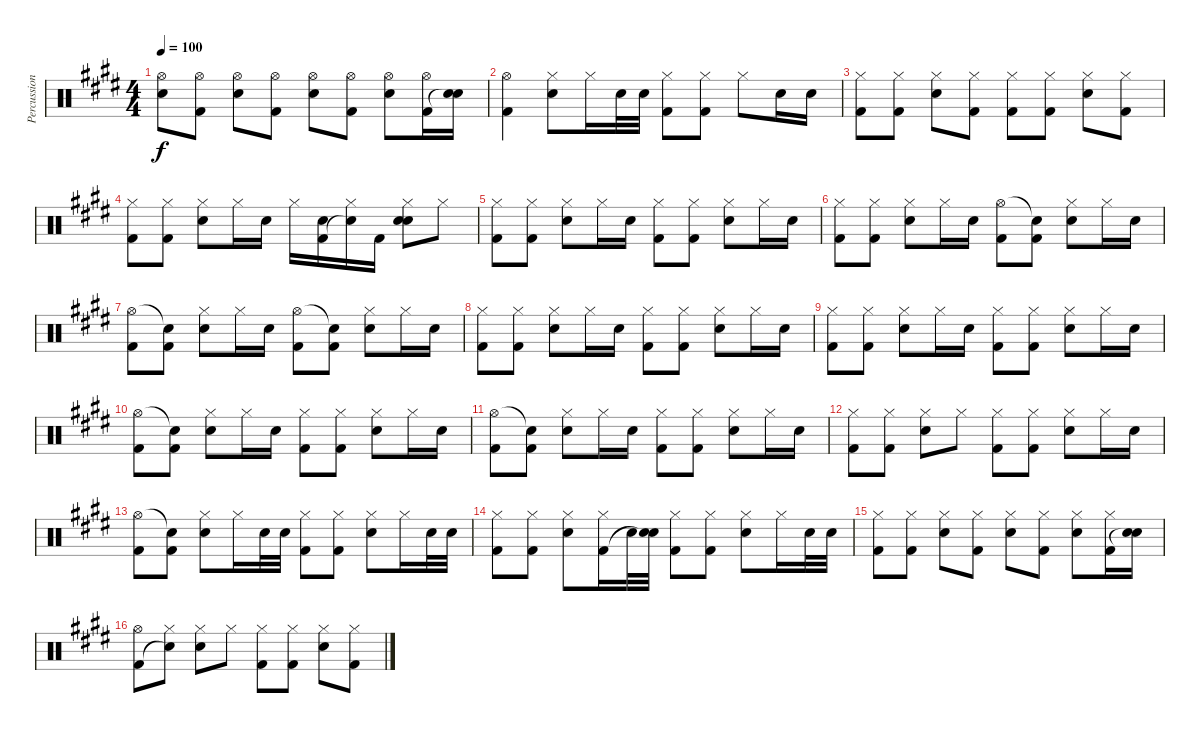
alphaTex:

\track ("Percussion" "Percussion") {instrument percussion}
\staff {score}
\articulation defaults
\ts (4 4)
\tempo 100
\clef neutral
\ks e
("Hi-Hat (open)" "Snare (hit) 2").8{dy f} ("Hi-Hat (open)" "Kick (hit) 2").8 ("Hi-Hat (open)" "Snare (hit) 2").8 ("Hi-Hat (open)" "Kick (hit) 2").8 ("Hi-Hat (open)" "Snare (hit) 2").8 ("Hi-Hat (open)" "Kick (hit) 2").8 ("Hi-Hat (open)" "Snare (hit) 2").8 ("Hi-Hat (open)" "Kick (hit) 2").16 ("Snare (hit) 2" "Snare (hit)"{t}).16 |
("Hi-Hat (open)" "Kick (hit) 2").4 ("Hi-Hat (closed)" "Snare (hit) 2").8 "Hi-Hat (closed)".16 "Snare (hit) 2".32 "Snare (hit) 2".32 ("Hi-Hat (closed)" "Kick (hit) 2").8 ("Hi-Hat (closed)" "Kick (hit) 2").8 "Hi-Hat (closed)".8 "Snare (hit) 2".16 "Snare (hit) 2".16 |
("Hi-Hat (closed)" "Kick (hit) 2").8 ("Hi-Hat (closed)" "Kick (hit) 2").8 ("Hi-Hat (closed)" "Snare (hit) 2").8 ("Hi-Hat (closed)" "Kick (hit) 2").8 ("Hi-Hat (closed)" "Kick (hit) 2").8 ("Hi-Hat (closed)" "Kick (hit) 2").8 ("Hi-Hat (closed)" "Snare (hit) 2").8 ("Hi-Hat (closed)" "Kick (hit) 2").8 |
("Hi-Hat (closed)" "Kick (hit) 2").8 ("Hi-Hat (closed)" "Kick (hit) 2").8 ("Hi-Hat (closed)" "Snare (hit) 2").8 "Hi-Hat (closed)".16 "Snare (hit) 2".16 "Hi-Hat (closed)".16 ("Snare (hit) 2" "Kick (hit) 2").16 ("Hi-Hat (closed)" "Snare (hit)"{t}).16 "Kick (hit) 2".16 ("Hi-Hat (closed)" "Snare (hit) 2" "Snare (hit)").8 "Hi-Hat (closed)".8 |
("Hi-Hat (closed)" "Kick (hit) 2").8 ("Hi-Hat (closed)" "Kick (hit) 2").8 ("Hi-Hat (closed)" "Snare (hit) 2").8 "Hi-Hat (closed)".16 "Snare (hit) 2".16 ("Hi-Hat (closed)" "Kick (hit) 2").8 ("Hi-Hat (closed)" "Kick (hit) 2").8 ("Hi-Hat (closed)" "Snare (hit) 2").8 "Hi-Hat (closed)".16 "Snare (hit) 2".16 |
("Hi-Hat (closed)" "Kick (hit) 2").8 ("Hi-Hat (closed)" "Kick (hit) 2").8 ("Hi-Hat (closed)" "Snare (hit) 2").8 "Hi-Hat (closed)".16 "Snare (hit) 2".16 ("Hi-Hat (open)" "Kick (hit) 2").8 ("Snare (hit)"{t} "Kick (hit) 2").8 ("Hi-Hat (closed)" "Snare (hit) 2").8 "Hi-Hat (closed)".16 "Snare (hit) 2".16 |
("Hi-Hat (open)" "Kick (hit) 2").8 ("Snare (hit)"{t} "Kick (hit) 2").8 ("Hi-Hat (closed)" "Snare (hit) 2").8 "Hi-Hat (closed)".16 "Snare (hit) 2".16 ("Hi-Hat (open)" "Kick (hit) 2").8 ("Snare (hit)"{t} "Kick (hit) 2").8 ("Hi-Hat (closed)" "Snare (hit) 2").8 "Hi-Hat (closed)".16 "Snare (hit) 2".16 |
("Hi-Hat (closed)" "Kick (hit) 2").8 ("Hi-Hat (closed)" "Kick (hit) 2").8 ("Hi-Hat (closed)" "Snare (hit) 2").8 "Hi-Hat (closed)".16 "Snare (hit) 2".16 ("Hi-Hat (closed)" "Kick (hit) 2").8 ("Hi-Hat (closed)" "Kick (hit) 2").8 ("Hi-Hat (closed)" "Snare (hit) 2").8 "Hi-Hat (closed)".16 "Snare (hit) 2".16 |
("Hi-Hat (closed)" "Kick (hit) 2").8 ("Hi-Hat (closed)" "Kick (hit) 2").8 ("Hi-Hat (closed)" "Snare (hit) 2").8 "Hi-Hat (closed)".16 "Snare (hit) 2".16 ("Hi-Hat (closed)" "Kick (hit) 2").8 ("Hi-Hat (closed)" "Kick (hit) 2").8 ("Hi-Hat (closed)" "Snare (hit) 2").8 "Hi-Hat (closed)".16 "Snare (hit) 2".16 |
("Hi-Hat (open)" "Kick (hit) 2").8 ("Snare (hit)"{t} "Kick (hit) 2").8 ("Hi-Hat (closed)" "Snare (hit) 2").8 "Hi-Hat (closed)".16 "Snare (hit) 2".16 ("Hi-Hat (closed)" "Kick (hit) 2").8 ("Hi-Hat (closed)" "Kick (hit) 2").8 ("Hi-Hat (closed)" "Snare (hit) 2").8 "Hi-Hat (closed)".16 "Snare (hit) 2".16 |
("Hi-Hat (open)" "Kick (hit) 2").8 ("Snare (hit)"{t} "Kick (hit) 2").8 ("Hi-Hat (closed)" "Snare (hit) 2").8 "Hi-Hat (closed)".16 "Snare (hit) 2".16 ("Hi-Hat (closed)" "Kick (hit) 2").8 ("Hi-Hat (closed)" "Kick (hit) 2").8 ("Hi-Hat (closed)" "Snare (hit) 2").8 "Hi-Hat (closed)".16 "Snare (hit) 2".16 |
("Hi-Hat (closed)" "Kick (hit) 2").8 ("Hi-Hat (closed)" "Kick (hit) 2").8 ("Hi-Hat (closed)" "Snare (hit) 2").8 "Hi-Hat (closed)".8 ("Hi-Hat (closed)" "Kick (hit) 2").8 ("Hi-Hat (closed)" "Kick (hit) 2").8 ("Hi-Hat (closed)" "Snare (hit) 2").8 "Hi-Hat (closed)".16 "Snare (hit) 2".16 |
("Hi-Hat (open)" "Kick (hit) 2").8 ("Snare (hit)"{t} "Kick (hit) 2").8 ("Hi-Hat (closed)" "Snare (hit) 2").8 "Hi-Hat (closed)".16 "Snare (hit) 2".32 "Snare (hit) 2".32 ("Hi-Hat (closed)" "Kick (hit) 2").8 ("Hi-Hat (closed)" "Kick (hit) 2").8 ("Hi-Hat (closed)" "Snare (hit) 2").8 "Hi-Hat (closed)".16 "Snare (hit) 2".32 "Snare (hit) 2".32 |
("Hi-Hat (closed)" "Kick (hit) 2").8 ("Hi-Hat (closed)" "Kick (hit) 2").8 ("Hi-Hat (closed)" "Snare (hit) 2").8 ("Hi-Hat (closed)" "Kick (hit) 2").16 "Snare (hit) 2".32 ("Snare (hit) 2" "Snare (hit)"{t}).32 ("Hi-Hat (closed)" "Kick (hit) 2").8 ("Hi-Hat (closed)" "Kick (hit) 2").8 ("Hi-Hat (closed)" "Snare (hit) 2").8 "Hi-Hat (closed)".16 "Snare (hit) 2".32 "Snare (hit) 2".32 |
("Hi-Hat (closed)" "Kick (hit) 2").8 ("Hi-Hat (closed)" "Kick (hit) 2").8 ("Hi-Hat (closed)" "Snare (hit) 2").8 ("Hi-Hat (closed)" "Kick (hit) 2").8 ("Hi-Hat (closed)" "Snare (hit) 2").8 ("Hi-Hat (closed)" "Kick (hit) 2").8 ("Hi-Hat (closed)" "Snare (hit) 2").8 ("Hi-Hat (closed)" "Kick (hit) 2").16 ("Snare (hit) 2" "Snare (hit)"{t}).16 |
("Hi-Hat (open)" "Kick (hit) 2").8 ("Hi-Hat (closed)" "Snare (hit)"{t}).8 ("Hi-Hat (closed)" "Snare (hit) 2").8 "Hi-Hat (closed)".8 ("Hi-Hat (closed)" "Kick (hit) 2").8 ("Hi-Hat (closed)" "Kick (hit) 2").8 ("Hi-Hat (closed)" "Snare (hit) 2").8 ("Hi-Hat (closed)" "Kick (hit) 2").8
